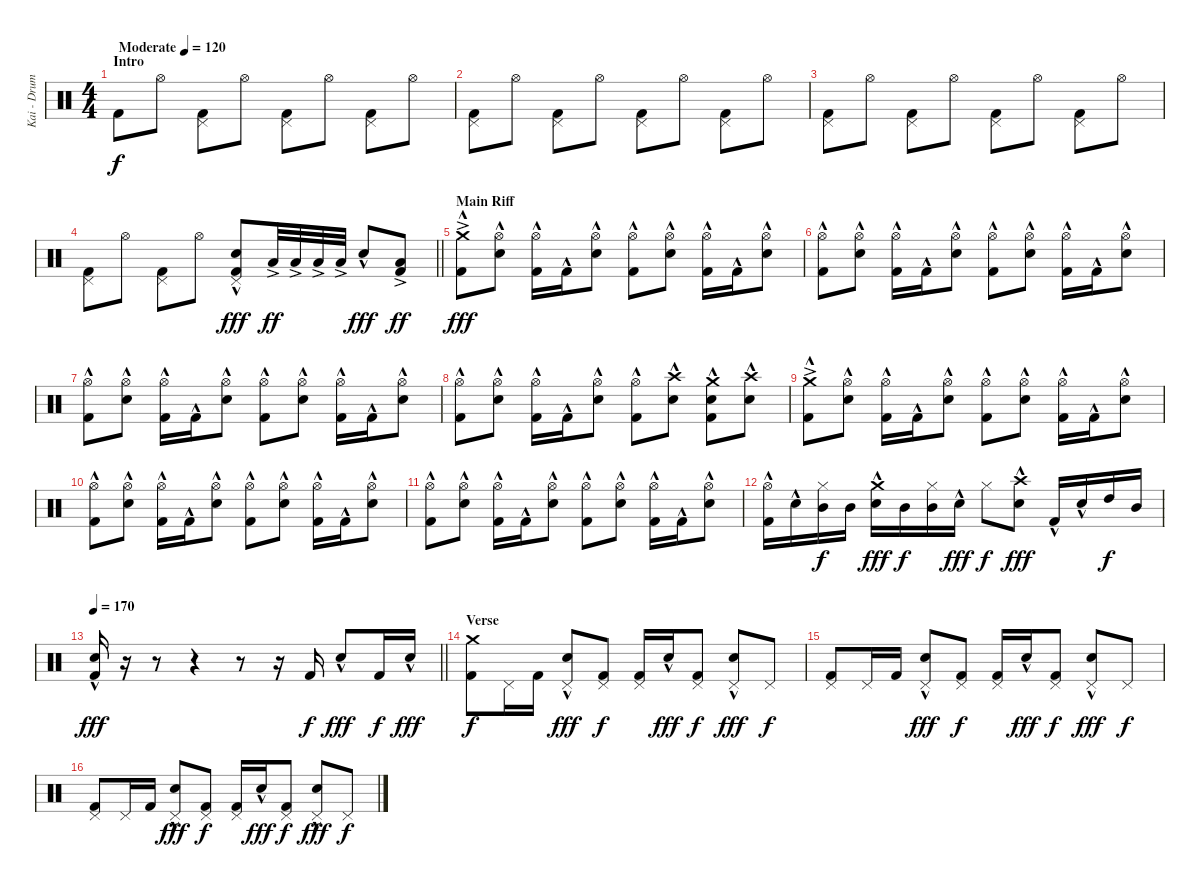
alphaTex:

\track ("Kai - Drums" "Kai - Drum") {instrument percussion}
\staff {score}
\articulation defaults
\ts (4 4)
\section ("" "Intro")
\tempo (120 "Moderate")
\clef neutral
\ks c "Kick (hit) 2".8{dy f} "Hi-Hat (open)".8
("Pedal Hi-Hat (hit)" "Kick (hit) 2").8 "Hi-Hat (open)".8 ("Pedal Hi-Hat (hit)" "Kick (hit) 2").8 "Hi-Hat (open)".8 ("Pedal Hi-Hat (hit)" "Kick (hit) 2").8 "Hi-Hat (open)".8 |
("Pedal Hi-Hat (hit)" "Kick (hit) 2").8 "Hi-Hat (open)".8 ("Pedal Hi-Hat (hit)" "Kick (hit) 2").8 "Hi-Hat (open)".8 ("Pedal Hi-Hat (hit)" "Kick (hit) 2").8 "Hi-Hat (open)".8 ("Pedal Hi-Hat (hit)" "Kick (hit) 2").8 "Hi-Hat (open)".8 |
("Pedal Hi-Hat (hit)" "Kick (hit) 2").8 "Hi-Hat (open)".8 ("Pedal Hi-Hat (hit)" "Kick (hit) 2").8 "Hi-Hat (open)".8 ("Pedal Hi-Hat (hit)" "Kick (hit) 2").8 "Hi-Hat (open)".8 ("Pedal Hi-Hat (hit)" "Kick (hit) 2").8 "Hi-Hat (open)".8 |
\barLineRight lightlight
("Pedal Hi-Hat (hit)" "Kick (hit) 2").8 "Hi-Hat (open)".8 ("Pedal Hi-Hat (hit)" "Kick (hit) 2").8 "Hi-Hat (open)".8 ("Pedal Hi-Hat (hit)" "Electric Snare (hit)"{hac} "Kick (hit) 2").8{dy fff} "Low Floor Tom (hit)"{ac}.32{dy ff} "Low Floor Tom (hit)"{ac}.32 "Low Floor Tom (hit)"{ac}.32 "Low Floor Tom (hit)"{ac}.32 "Electric Snare (hit)"{hac}.8{dy fff} ("Low Floor Tom (hit)"{ac} "Kick (hit) 2").8{dy ff} |
\section ("" "Main Riff")
("Crash medium (hit)"{ac} "Kick (hit) 2"{hac}).8{dy fff} ("Hi-Hat (open)" "Electric Snare (hit)"{hac}).8 ("Hi-Hat (open)" "Kick (hit) 2"{hac}).16 "Kick (hit) 2"{hac}.16 ("Hi-Hat (open)" "Electric Snare (hit)"{hac}).8 ("Hi-Hat (open)" "Kick (hit) 2"{hac}).8 ("Hi-Hat (open)" "Electric Snare (hit)"{hac}).8 ("Hi-Hat (open)" "Kick (hit) 2"{hac}).16 "Kick (hit) 2"{hac}.16 ("Hi-Hat (open)" "Electric Snare (hit)"{hac}).8 |
("Hi-Hat (open)" "Kick (hit) 2"{hac}).8 ("Hi-Hat (open)" "Electric Snare (hit)"{hac}).8 ("Hi-Hat (open)" "Kick (hit) 2"{hac}).16 "Kick (hit) 2"{hac}.16 ("Hi-Hat (open)" "Electric Snare (hit)"{hac}).8 ("Hi-Hat (open)" "Kick (hit) 2"{hac}).8 ("Hi-Hat (open)" "Electric Snare (hit)"{hac}).8 ("Hi-Hat (open)" "Kick (hit) 2"{hac}).16 "Kick (hit) 2"{hac}.16 ("Hi-Hat (open)" "Electric Snare (hit)"{hac}).8 |
("Hi-Hat (open)" "Kick (hit) 2"{hac}).8 ("Hi-Hat (open)" "Electric Snare (hit)"{hac}).8 ("Hi-Hat (open)" "Kick (hit) 2"{hac}).16 "Kick (hit) 2"{hac}.16 ("Hi-Hat (open)" "Electric Snare (hit)"{hac}).8 ("Hi-Hat (open)" "Kick (hit) 2"{hac}).8 ("Hi-Hat (open)" "Electric Snare (hit)"{hac}).8 ("Hi-Hat (open)" "Kick (hit) 2"{hac}).16 "Kick (hit) 2"{hac}.16 ("Hi-Hat (open)" "Electric Snare (hit)"{hac}).8 |
("Hi-Hat (open)" "Kick (hit) 2"{hac}).8 ("Hi-Hat (open)" "Electric Snare (hit)"{hac}).8 ("Hi-Hat (open)" "Kick (hit) 2"{hac}).16 "Kick (hit) 2"{hac}.16 ("Hi-Hat (open)" "Electric Snare (hit)"{hac}).8 ("Hi-Hat (open)" "Kick (hit) 2"{hac}).8 ("Crash high (hit)" "Electric Snare (hit)"{hac}).8 ("Crash medium (hit)" "Electric Snare (hit)" "Kick (hit) 2"{hac}).8 ("Crash high (hit)" "Electric Snare (hit)"{hac}).8 |
("Crash medium (hit)"{ac} "Kick (hit) 2"{hac}).8 ("Hi-Hat (open)" "Electric Snare (hit)"{hac}).8 ("Hi-Hat (open)" "Kick (hit) 2"{hac}).16 "Kick (hit) 2"{hac}.16 ("Hi-Hat (open)" "Electric Snare (hit)"{hac}).8 ("Hi-Hat (open)" "Kick (hit) 2"{hac}).8 ("Hi-Hat (open)" "Electric Snare (hit)"{hac}).8 ("Hi-Hat (open)" "Kick (hit) 2"{hac}).16 "Kick (hit) 2"{hac}.16 ("Hi-Hat (open)" "Electric Snare (hit)"{hac}).8 |
("Hi-Hat (open)" "Kick (hit) 2"{hac}).8 ("Hi-Hat (open)" "Electric Snare (hit)"{hac}).8 ("Hi-Hat (open)" "Kick (hit) 2"{hac}).16 "Kick (hit) 2"{hac}.16 ("Hi-Hat (open)" "Electric Snare (hit)"{hac}).8 ("Hi-Hat (open)" "Kick (hit) 2"{hac}).8 ("Hi-Hat (open)" "Electric Snare (hit)"{hac}).8 ("Hi-Hat (open)" "Kick (hit) 2"{hac}).16 "Kick (hit) 2"{hac}.16 ("Hi-Hat (open)" "Electric Snare (hit)"{hac}).8 |
("Hi-Hat (open)" "Kick (hit) 2"{hac}).8 ("Hi-Hat (open)" "Electric Snare (hit)"{hac}).8 ("Hi-Hat (open)" "Kick (hit) 2"{hac}).16 "Kick (hit) 2"{hac}.16 ("Hi-Hat (open)" "Electric Snare (hit)"{hac}).8 ("Hi-Hat (open)" "Kick (hit) 2"{hac}).8 ("Hi-Hat (open)" "Electric Snare (hit)"{hac}).8 ("Hi-Hat (open)" "Kick (hit) 2"{hac}).16 "Kick (hit) 2"{hac}.16 ("Hi-Hat (open)" "Electric Snare (hit)"{hac}).8 |
("Hi-Hat (open)" "Kick (hit) 2"{hac}).16 "Electric Snare (hit)"{hac}.16 ("Hi-Hat (closed)" "Mid Tom (hit)").16{dy f} "Mid Tom (hit)".16 ("Crash medium (hit)" "Electric Snare (hit)"{hac}).16{dy fff} "Mid Tom (hit)".16{dy f} ("Hi-Hat (closed)" "Mid Tom (hit)").16 "Electric Snare (hit)"{hac}.16{dy fff} "Hi-Hat (closed)".8{dy f} ("Crash high (hit)"{hac} "Electric Snare (hit)"{hac}).8{dy fff} "Kick (hit) 2"{hac}.16 "Electric Snare (hit)"{hac}.16 "High Tom (hit)".16{dy f} "Mid Tom (hit)".16 |
\tempo 170
\barLineRight lightlight
("Electric Snare (hit)"{hac} "Kick (hit) 2").16{dy fff} r.16 r.8 r.4 r.8 r.16 "Kick (hit) 2".16{dy f} "Electric Snare (hit)"{hac}.8{dy fff} "Kick (hit) 2".16{dy f} "Electric Snare (hit)"{hac}.16{dy fff} |
\section ("" "Verse")
("Crash medium (hit)" "Kick (hit) 2").8{dy f} "Pedal Hi-Hat (hit)".16 "Kick (hit) 2".16 ("Pedal Hi-Hat (hit)" "Electric Snare (hit)"{hac}).8{dy fff} ("Pedal Hi-Hat (hit)" "Kick (hit) 2").8{dy f} ("Pedal Hi-Hat (hit)" "Kick (hit) 2").16 "Electric Snare (hit)"{hac}.16{dy fff} ("Pedal Hi-Hat (hit)" "Kick (hit) 2").8{dy f} ("Pedal Hi-Hat (hit)" "Electric Snare (hit)"{hac}).8{dy fff} "Pedal Hi-Hat (hit)".8{dy f} |
("Pedal Hi-Hat (hit)" "Kick (hit) 2").8 "Pedal Hi-Hat (hit)".16 "Kick (hit) 2".16 ("Pedal Hi-Hat (hit)" "Electric Snare (hit)"{hac}).8{dy fff} ("Pedal Hi-Hat (hit)" "Kick (hit) 2").8{dy f} ("Pedal Hi-Hat (hit)" "Kick (hit) 2").16 "Electric Snare (hit)"{hac}.16{dy fff} ("Pedal Hi-Hat (hit)" "Kick (hit) 2").8{dy f} ("Pedal Hi-Hat (hit)" "Electric Snare (hit)"{hac}).8{dy fff} "Pedal Hi-Hat (hit)".8{dy f} |
("Pedal Hi-Hat (hit)" "Kick (hit) 2").8 "Pedal Hi-Hat (hit)".16 "Kick (hit) 2".16 ("Pedal Hi-Hat (hit)" "Electric Snare (hit)"{hac}).8{dy fff} ("Pedal Hi-Hat (hit)" "Kick (hit) 2").8{dy f} ("Pedal Hi-Hat (hit)" "Kick (hit) 2").16 "Electric Snare (hit)"{hac}.16{dy fff} ("Pedal Hi-Hat (hit)" "Kick (hit) 2").8{dy f} ("Pedal Hi-Hat (hit)" "Electric Snare (hit)"{hac}).8{dy fff} "Pedal Hi-Hat (hit)".8{dy f}
